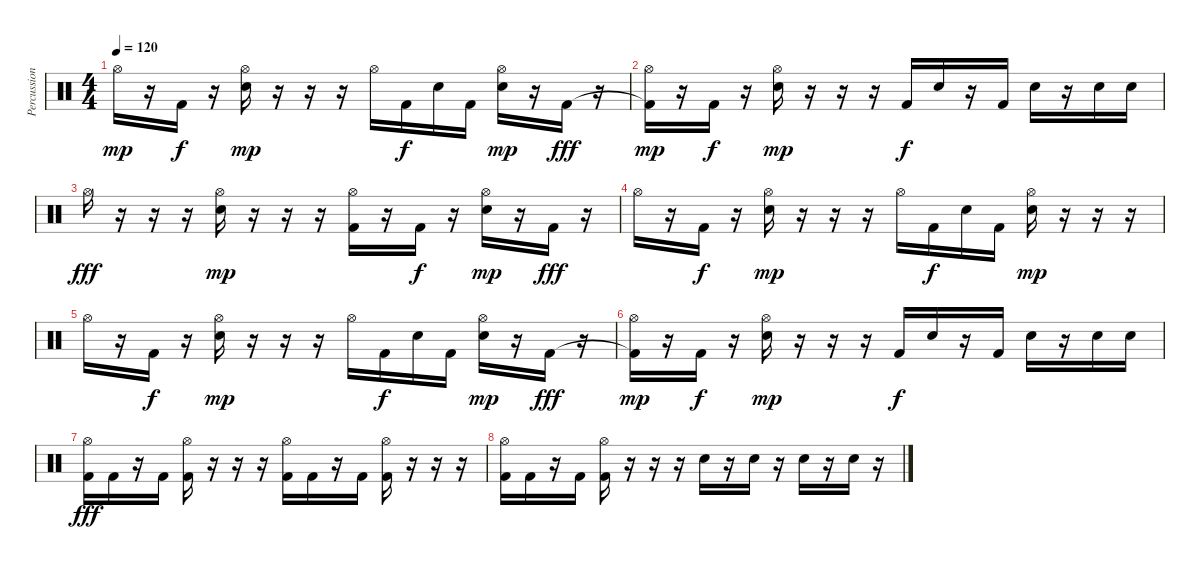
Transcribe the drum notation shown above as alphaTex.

\track ("Percussion" "Percussion") {instrument percussion}
\staff {score}
\articulation defaults
\ts (4 4)
\tempo 120
\clef neutral
\ks c "Hi-Hat (open)".16{dy mp}
r.16 "Kick (hit) 2".16{dy f} r.16 ("Snare (hit) 2" "Hi-Hat (open)").16{dy mp} r.16 r.16 r.16 "Hi-Hat (open)".16 "Kick (hit) 2".16{dy f} "Snare (hit) 2".16 "Kick (hit) 2".16 ("Snare (hit) 2" "Hi-Hat (open)").16{dy mp} r.16 "Kick (hit) 2".16{dy fff} r.16 |
("Kick (hit) 2"{t} "Hi-Hat (open)").16{dy mp} r.16 "Kick (hit) 2".16{dy f} r.16 ("Snare (hit) 2" "Hi-Hat (open)").16{dy mp} r.16 r.16 r.16 "Kick (hit) 2".16{dy f} "Snare (hit) 2".16 r.16 "Kick (hit) 2".16 "Snare (hit) 2".16 r.16 "Snare (hit) 2".16 "Snare (hit) 2".16 |
"Hi-Hat (open)".16{dy fff} r.16 r.16 r.16 ("Snare (hit) 2" "Hi-Hat (open)").16{dy mp} r.16 r.16 r.16 ("Kick (hit) 2" "Hi-Hat (open)").16 r.16 "Kick (hit) 2".16{dy f} r.16 ("Snare (hit) 2" "Hi-Hat (open)").16{dy mp} r.16 "Kick (hit) 2".16{dy fff} r.16 |
"Hi-Hat (open)".16 r.16 "Kick (hit) 2".16{dy f} r.16 ("Snare (hit) 2" "Hi-Hat (open)").16{dy mp} r.16 r.16 r.16 "Hi-Hat (open)".16 "Kick (hit) 2".16{dy f} "Snare (hit) 2".16 "Kick (hit) 2".16 ("Snare (hit) 2" "Hi-Hat (open)").16{dy mp} r.16 r.16 r.16 |
"Hi-Hat (open)".16 r.16 "Kick (hit) 2".16{dy f} r.16 ("Snare (hit) 2" "Hi-Hat (open)").16{dy mp} r.16 r.16 r.16 "Hi-Hat (open)".16 "Kick (hit) 2".16{dy f} "Snare (hit) 2".16 "Kick (hit) 2".16 ("Snare (hit) 2" "Hi-Hat (open)").16{dy mp} r.16 "Kick (hit) 2".16{dy fff} r.16 |
("Kick (hit) 2"{t} "Hi-Hat (open)").16{dy mp} r.16 "Kick (hit) 2".16{dy f} r.16 ("Snare (hit) 2" "Hi-Hat (open)").16{dy mp} r.16 r.16 r.16 "Kick (hit) 2".16{dy f} "Snare (hit) 2".16 r.16 "Kick (hit) 2".16 "Snare (hit) 2".16 r.16 "Snare (hit) 2".16 "Snare (hit) 2".16 |
("Kick (hit) 2" "Hi-Hat (open)").16{dy fff} "Kick (hit) 2".16 r.16 "Kick (hit) 2".16 ("Kick (hit) 2" "Hi-Hat (open)").16 r.16 r.16 r.16 ("Kick (hit) 2" "Hi-Hat (open)").16 "Kick (hit) 2".16 r.16 "Kick (hit) 2".16 ("Kick (hit) 2" "Hi-Hat (open)").16 r.16 r.16 r.16 |
("Kick (hit) 2" "Hi-Hat (open)").16 "Kick (hit) 2".16 r.16 "Kick (hit) 2".16 ("Kick (hit) 2" "Hi-Hat (open)").16 r.16 r.16 r.16 "Hand Clap (hit)".16 r.16 "Hand Clap (hit)".16 r.16 "Hand Clap (hit)".16 r.16 "Hand Clap (hit)".16 r.16
